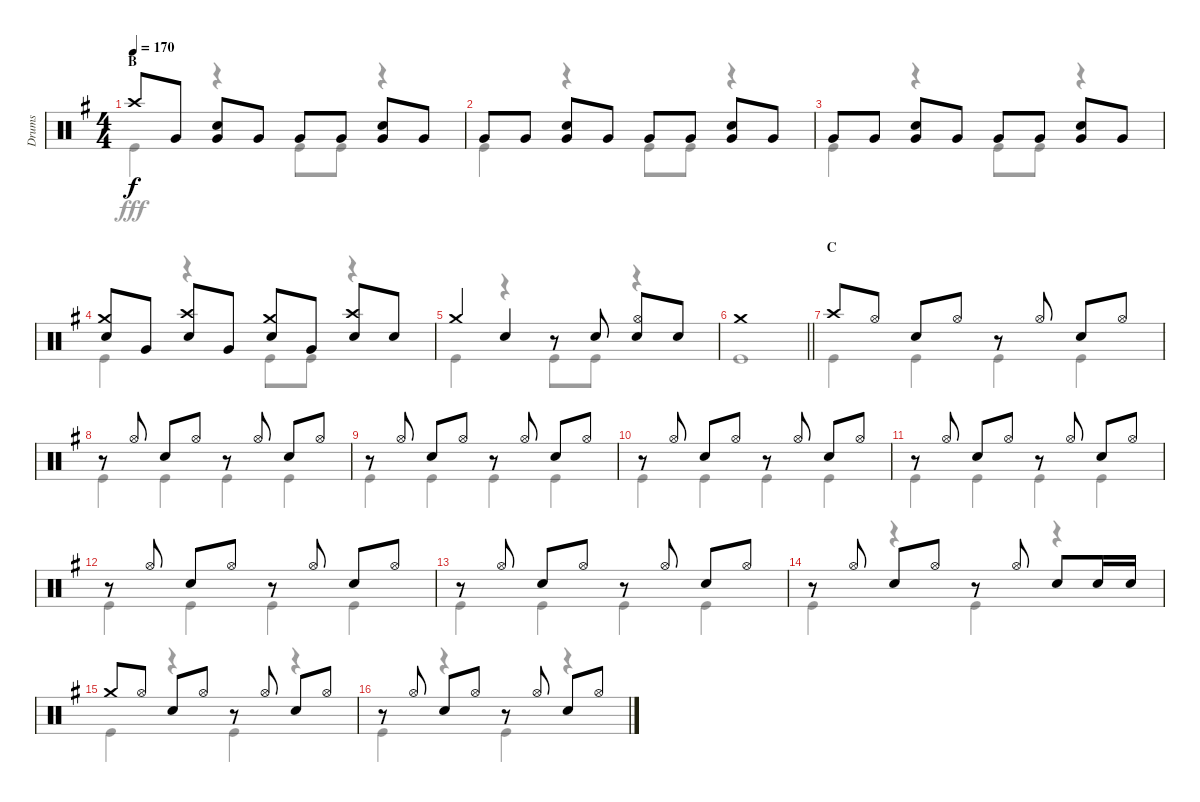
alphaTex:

\track ("Drums" "Drums") {instrument percussion}
\staff {score}
\articulation defaults
\voice
\ts (4 4)
\section ("" "B")
\tempo 170
\clef neutral
\ks g "Crash high (hit)".8{dy f} "Very Low Tom (hit)".8
("Snare (hit) 2" "Very Low Tom (hit)").8 "Very Low Tom (hit)".8 "Very Low Tom (hit)".8 "Very Low Tom (hit)".8 ("Snare (hit) 2" "Very Low Tom (hit)").8 "Very Low Tom (hit)".8 |
"Very Low Tom (hit)".8 "Very Low Tom (hit)".8 ("Snare (hit) 2" "Very Low Tom (hit)").8 "Very Low Tom (hit)".8 "Very Low Tom (hit)".8 "Very Low Tom (hit)".8 ("Snare (hit) 2" "Very Low Tom (hit)").8 "Very Low Tom (hit)".8 |
"Very Low Tom (hit)".8 "Very Low Tom (hit)".8 ("Snare (hit) 2" "Very Low Tom (hit)").8 "Very Low Tom (hit)".8 "Very Low Tom (hit)".8 "Very Low Tom (hit)".8 ("Snare (hit) 2" "Very Low Tom (hit)").8 "Very Low Tom (hit)".8 |
("Crash medium (hit)" "Snare (hit) 2").8 "Very Low Tom (hit)".8 ("Crash high (hit)" "Snare (hit) 2").8 "Very Low Tom (hit)".8 ("Crash medium (hit)" "Snare (hit) 2").8 "Very Low Tom (hit)".8 ("Crash high (hit)" "Snare (hit) 2").8 "Snare (hit) 2".8 |
"Crash medium (hit)".4 "Snare (hit) 2".4 r.8 "Snare (hit) 2".8 ("Hi-Hat (open)" "Snare (hit) 2").8 "Snare (hit) 2".8 |
\barLineRight lightlight "Crash medium (hit)".1
|
\section ("" "C")
"Crash high (hit)".8 "Hi-Hat (open)".8 "Snare (hit) 2".8 "Hi-Hat (open)".8 r.8 "Hi-Hat (open)".8 "Snare (hit) 2".8 "Hi-Hat (open)".8 |
r.8 "Hi-Hat (open)".8 "Snare (hit) 2".8 "Hi-Hat (open)".8 r.8 "Hi-Hat (open)".8 "Snare (hit) 2".8 "Hi-Hat (open)".8 |
r.8 "Hi-Hat (open)".8 "Snare (hit) 2".8 "Hi-Hat (open)".8 r.8 "Hi-Hat (open)".8 "Snare (hit) 2".8 "Hi-Hat (open)".8 |
r.8 "Hi-Hat (open)".8 "Snare (hit) 2".8 "Hi-Hat (open)".8 r.8 "Hi-Hat (open)".8 "Snare (hit) 2".8 "Hi-Hat (open)".8 |
r.8 "Hi-Hat (open)".8 "Snare (hit) 2".8 "Hi-Hat (open)".8 r.8 "Hi-Hat (open)".8 "Snare (hit) 2".8 "Hi-Hat (open)".8 |
r.8 "Hi-Hat (open)".8 "Snare (hit) 2".8 "Hi-Hat (open)".8 r.8 "Hi-Hat (open)".8 "Snare (hit) 2".8 "Hi-Hat (open)".8 |
r.8 "Hi-Hat (open)".8 "Snare (hit) 2".8 "Hi-Hat (open)".8 r.8 "Hi-Hat (open)".8 "Snare (hit) 2".8 "Hi-Hat (open)".8 |
r.8 "Hi-Hat (open)".8 "Snare (hit) 2".8 "Hi-Hat (open)".8 r.8 "Hi-Hat (open)".8 "Snare (hit) 2".8 "Snare (hit) 2".16 "Snare (hit) 2".16 |
"Crash medium (hit)".8 "Hi-Hat (open)".8 "Snare (hit) 2".8 "Hi-Hat (open)".8 r.8 "Hi-Hat (open)".8 "Snare (hit) 2".8 "Hi-Hat (open)".8 |
r.8 "Hi-Hat (open)".8 "Snare (hit) 2".8 "Hi-Hat (open)".8 r.8 "Hi-Hat (open)".8 "Snare (hit) 2".8 "Hi-Hat (open)".8
\voice
\clef neutral
\ottava regular
\simile none
\ks g "Kick (hit)".4{dy fff}
r.4 "Kick (hit)".8 "Kick (hit)".8 r.4 |
"Kick (hit)".4 r.4 "Kick (hit)".8 "Kick (hit)".8 r.4 |
"Kick (hit)".4 r.4 "Kick (hit)".8 "Kick (hit)".8 r.4 |
"Kick (hit)".4 r.4 "Kick (hit)".8 "Kick (hit)".8 r.4 |
"Kick (hit)".4 r.4 "Kick (hit)".8 "Kick (hit)".8 r.4 |
\barLineRight lightlight "Kick (hit)".1
|
"Kick (hit)".4 "Kick (hit)".4 "Kick (hit)".4 "Kick (hit)".4 |
"Kick (hit)".4 "Kick (hit)".4 "Kick (hit)".4 "Kick (hit)".4 |
"Kick (hit)".4 "Kick (hit)".4 "Kick (hit)".4 "Kick (hit)".4 |
"Kick (hit)".4 "Kick (hit)".4 "Kick (hit)".4 "Kick (hit)".4 |
"Kick (hit)".4 "Kick (hit)".4 "Kick (hit)".4 "Kick (hit)".4 |
"Kick (hit)".4 "Kick (hit)".4 "Kick (hit)".4 "Kick (hit)".4 |
"Kick (hit)".4 "Kick (hit)".4 "Kick (hit)".4 "Kick (hit)".4 |
"Kick (hit)".4 r.4 "Kick (hit)".4 r.4 |
"Kick (hit)".4 r.4 "Kick (hit)".4 r.4 |
"Kick (hit)".4 r.4 "Kick (hit)".4 r.4
